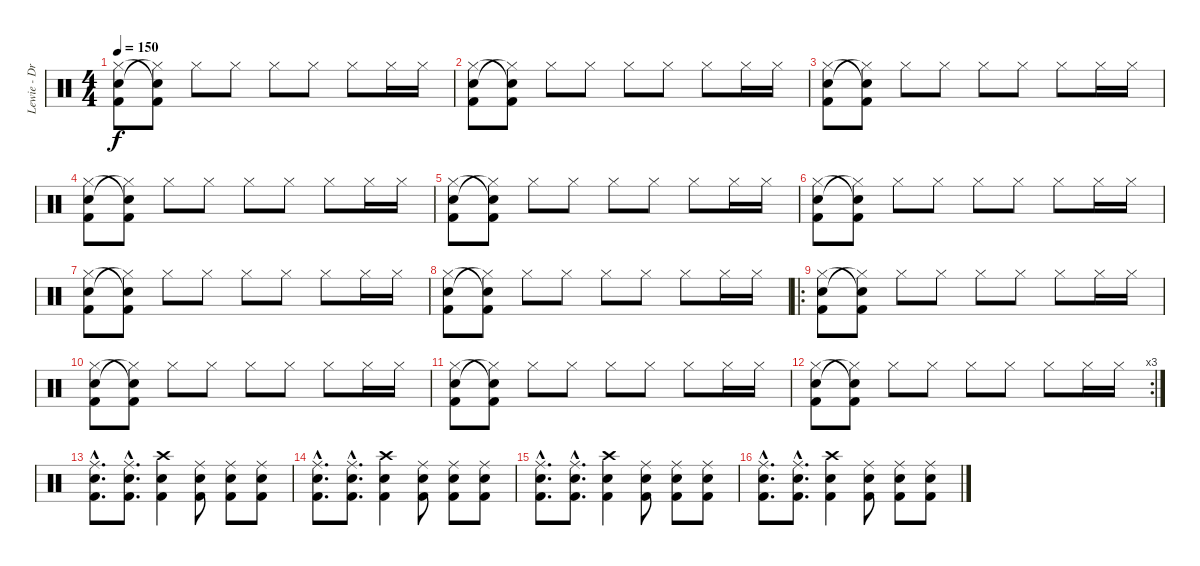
\track ("Lewie - Drums" "Lewie - Dr") {instrument percussion}
\staff {score}
\articulation defaults
\ts (4 4)
\tempo 150
\clef neutral
\ks c
("Electric Snare (hit)" "Hi-Hat (closed)" "Kick (hit) 2").8{dy f} ("Hi-Hat (closed)"{t} "Snare (hit)"{t} "Kick (hit) 2").8 "Hi-Hat (closed)".8 "Hi-Hat (closed)".8 "Hi-Hat (closed)".8 "Hi-Hat (closed)".8 "Hi-Hat (closed)".8 "Hi-Hat (closed)".16 "Hi-Hat (closed)".16 |
("Electric Snare (hit)" "Hi-Hat (closed)" "Kick (hit) 2").8 ("Hi-Hat (closed)"{t} "Snare (hit)"{t} "Kick (hit) 2").8 "Hi-Hat (closed)".8 "Hi-Hat (closed)".8 "Hi-Hat (closed)".8 "Hi-Hat (closed)".8 "Hi-Hat (closed)".8 "Hi-Hat (closed)".16 "Hi-Hat (closed)".16 |
("Electric Snare (hit)" "Hi-Hat (closed)" "Kick (hit) 2").8 ("Hi-Hat (closed)"{t} "Snare (hit)"{t} "Kick (hit) 2").8 "Hi-Hat (closed)".8 "Hi-Hat (closed)".8 "Hi-Hat (closed)".8 "Hi-Hat (closed)".8 "Hi-Hat (closed)".8 "Hi-Hat (closed)".16 "Hi-Hat (closed)".16 |
("Electric Snare (hit)" "Hi-Hat (closed)" "Kick (hit) 2").8 ("Hi-Hat (closed)"{t} "Snare (hit)"{t} "Kick (hit) 2").8 "Hi-Hat (closed)".8 "Hi-Hat (closed)".8 "Hi-Hat (closed)".8 "Hi-Hat (closed)".8 "Hi-Hat (closed)".8 "Hi-Hat (closed)".16 "Hi-Hat (closed)".16 |
("Electric Snare (hit)" "Hi-Hat (closed)" "Kick (hit) 2").8 ("Hi-Hat (closed)"{t} "Snare (hit)"{t} "Kick (hit) 2").8 "Hi-Hat (closed)".8 "Hi-Hat (closed)".8 "Hi-Hat (closed)".8 "Hi-Hat (closed)".8 "Hi-Hat (closed)".8 "Hi-Hat (closed)".16 "Hi-Hat (closed)".16 |
("Electric Snare (hit)" "Hi-Hat (closed)" "Kick (hit) 2").8 ("Hi-Hat (closed)"{t} "Snare (hit)"{t} "Kick (hit) 2").8 "Hi-Hat (closed)".8 "Hi-Hat (closed)".8 "Hi-Hat (closed)".8 "Hi-Hat (closed)".8 "Hi-Hat (closed)".8 "Hi-Hat (closed)".16 "Hi-Hat (closed)".16 |
("Electric Snare (hit)" "Hi-Hat (closed)" "Kick (hit) 2").8 ("Hi-Hat (closed)"{t} "Snare (hit)"{t} "Kick (hit) 2").8 "Hi-Hat (closed)".8 "Hi-Hat (closed)".8 "Hi-Hat (closed)".8 "Hi-Hat (closed)".8 "Hi-Hat (closed)".8 "Hi-Hat (closed)".16 "Hi-Hat (closed)".16 |
("Electric Snare (hit)" "Hi-Hat (closed)" "Kick (hit) 2").8 ("Hi-Hat (closed)"{t} "Snare (hit)"{t} "Kick (hit) 2").8 "Hi-Hat (closed)".8 "Hi-Hat (closed)".8 "Hi-Hat (closed)".8 "Hi-Hat (closed)".8 "Hi-Hat (closed)".8 "Hi-Hat (closed)".16 "Hi-Hat (closed)".16 |
\ro
("Electric Snare (hit)" "Hi-Hat (closed)" "Kick (hit) 2").8 ("Hi-Hat (closed)"{t} "Snare (hit)"{t} "Kick (hit) 2").8 "Hi-Hat (closed)".8 "Hi-Hat (closed)".8 "Hi-Hat (closed)".8 "Hi-Hat (closed)".8 "Hi-Hat (closed)".8 "Hi-Hat (closed)".16 "Hi-Hat (closed)".16 |
("Electric Snare (hit)" "Hi-Hat (closed)" "Kick (hit) 2").8 ("Hi-Hat (closed)"{t} "Snare (hit)"{t} "Kick (hit) 2").8 "Hi-Hat (closed)".8 "Hi-Hat (closed)".8 "Hi-Hat (closed)".8 "Hi-Hat (closed)".8 "Hi-Hat (closed)".8 "Hi-Hat (closed)".16 "Hi-Hat (closed)".16 |
("Electric Snare (hit)" "Hi-Hat (closed)" "Kick (hit) 2").8 ("Hi-Hat (closed)"{t} "Snare (hit)"{t} "Kick (hit) 2").8 "Hi-Hat (closed)".8 "Hi-Hat (closed)".8 "Hi-Hat (closed)".8 "Hi-Hat (closed)".8 "Hi-Hat (closed)".8 "Hi-Hat (closed)".16 "Hi-Hat (closed)".16 |
\rc 3
("Electric Snare (hit)" "Hi-Hat (closed)" "Kick (hit) 2").8 ("Hi-Hat (closed)"{t} "Snare (hit)"{t} "Kick (hit) 2").8 "Hi-Hat (closed)".8 "Hi-Hat (closed)".8 "Hi-Hat (closed)".8 "Hi-Hat (closed)".8 "Hi-Hat (closed)".8 "Hi-Hat (closed)".16 "Hi-Hat (closed)".16 |
("Electric Snare (hit)"{hac} "Kick (hit) 2"{hac} "Ride (middle)"{hac}).8{d} ("Electric Snare (hit)"{hac} "Kick (hit) 2"{hac} "Ride (middle)"{hac}).8{d} ("Electric Snare (hit)" "Kick (hit) 2" "Crash high (hit)").4 ("Electric Snare (hit)" "Kick (hit) 2" "Ride (middle)").8 ("Electric Snare (hit)" "Kick (hit) 2" "Ride (middle)").8 ("Electric Snare (hit)" "Kick (hit) 2" "Ride (middle)").8 |
("Electric Snare (hit)"{hac} "Kick (hit) 2"{hac} "Ride (middle)"{hac}).8{d} ("Electric Snare (hit)"{hac} "Kick (hit) 2"{hac} "Ride (middle)"{hac}).8{d} ("Electric Snare (hit)" "Kick (hit) 2" "Crash high (hit)").4 ("Electric Snare (hit)" "Kick (hit) 2" "Ride (middle)").8 ("Electric Snare (hit)" "Kick (hit) 2" "Ride (middle)").8 ("Electric Snare (hit)" "Kick (hit) 2" "Ride (middle)").8 |
("Electric Snare (hit)"{hac} "Kick (hit) 2"{hac} "Ride (middle)"{hac}).8{d} ("Electric Snare (hit)"{hac} "Kick (hit) 2"{hac} "Ride (middle)"{hac}).8{d} ("Electric Snare (hit)" "Kick (hit) 2" "Crash high (hit)").4 ("Electric Snare (hit)" "Kick (hit) 2" "Ride (middle)").8 ("Electric Snare (hit)" "Kick (hit) 2" "Ride (middle)").8 ("Electric Snare (hit)" "Kick (hit) 2" "Ride (middle)").8 |
("Electric Snare (hit)"{hac} "Kick (hit) 2"{hac} "Ride (middle)"{hac}).8{d} ("Electric Snare (hit)"{hac} "Kick (hit) 2"{hac} "Ride (middle)"{hac}).8{d} ("Electric Snare (hit)" "Kick (hit) 2" "Crash high (hit)").4 ("Electric Snare (hit)" "Kick (hit) 2" "Ride (middle)").8 ("Electric Snare (hit)" "Kick (hit) 2" "Ride (middle)").8 ("Electric Snare (hit)" "Kick (hit) 2" "Ride (middle)").8
